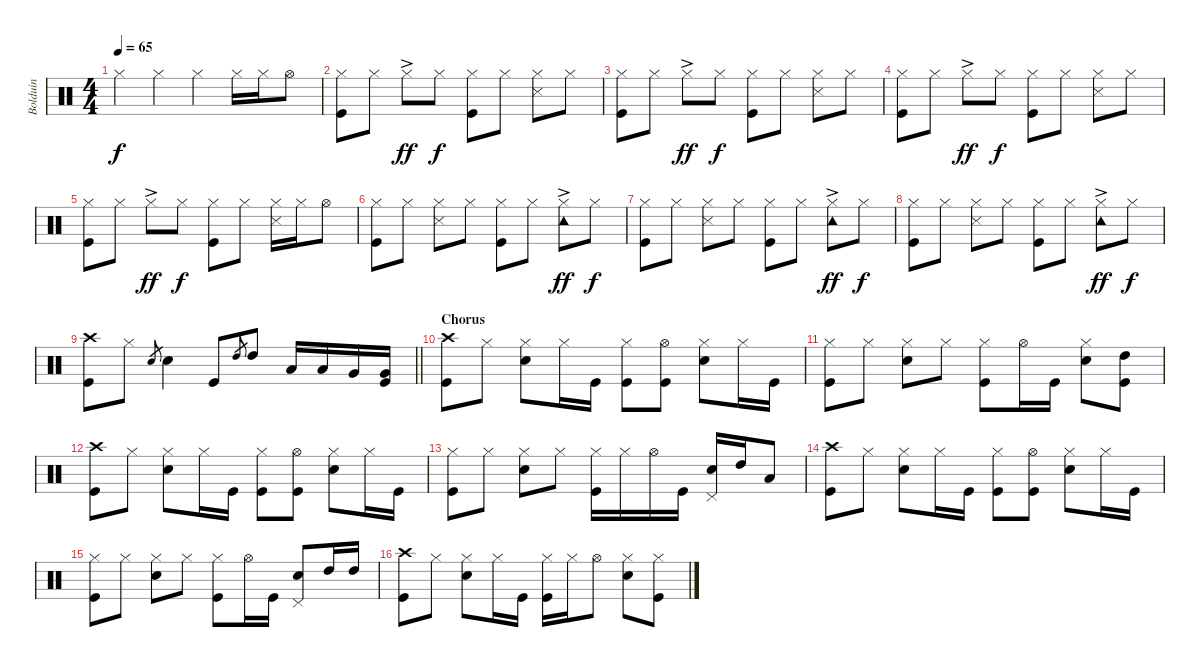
\track ("Bolduin" "Bolduin") {instrument percussion}
\staff {score}
\articulation defaults
\ts (4 4)
\tempo 65
\clef neutral
\ks c "Hi-Hat (closed)".4{dy f} "Hi-Hat (closed)".4 "Hi-Hat (closed)".4 "Hi-Hat (closed)".16 "Hi-Hat (closed)".16 "Hi-Hat (open)".8
|
("Kick (hit)" "Hi-Hat (closed)").8 "Hi-Hat (closed)".8 "Hi-Hat (closed)"{ac}.8{dy ff} "Hi-Hat (closed)".8{dy f} ("Hi-Hat (closed)" "Kick (hit)").8 "Hi-Hat (closed)".8 ("Hi-Hat (closed)" "Snare (side stick) 3").8 "Hi-Hat (closed)".8 |
("Kick (hit)" "Hi-Hat (closed)").8 "Hi-Hat (closed)".8 "Hi-Hat (closed)"{ac}.8{dy ff} "Hi-Hat (closed)".8{dy f} ("Hi-Hat (closed)" "Kick (hit)").8 "Hi-Hat (closed)".8 ("Hi-Hat (closed)" "Snare (side stick) 3").8 "Hi-Hat (closed)".8 |
("Kick (hit)" "Hi-Hat (closed)").8 "Hi-Hat (closed)".8 "Hi-Hat (closed)"{ac}.8{dy ff} "Hi-Hat (closed)".8{dy f} ("Hi-Hat (closed)" "Kick (hit)").8 "Hi-Hat (closed)".8 ("Hi-Hat (closed)" "Snare (side stick) 3").8 "Hi-Hat (closed)".8 |
("Kick (hit)" "Hi-Hat (closed)").8 "Hi-Hat (closed)".8 "Hi-Hat (closed)"{ac}.8{dy ff} "Hi-Hat (closed)".8{dy f} ("Hi-Hat (closed)" "Kick (hit)").8 "Hi-Hat (closed)".8 ("Hi-Hat (closed)" "Snare (side stick) 3").16 "Hi-Hat (closed)".16 "Hi-Hat (open)".8 |
("Kick (hit)" "Hi-Hat (closed)").8 "Hi-Hat (closed)".8 ("Hi-Hat (closed)" "Snare (side stick) 3").8 "Hi-Hat (closed)".8 ("Hi-Hat (closed)" "Kick (hit)").8 "Hi-Hat (closed)".8 ("Hi-Hat (closed)" "Tambourine (hit)"{ac}).8{dy ff} "Hi-Hat (closed)".8{dy f} |
("Kick (hit)" "Hi-Hat (closed)").8 "Hi-Hat (closed)".8 ("Hi-Hat (closed)" "Snare (side stick) 3").8 "Hi-Hat (closed)".8 ("Hi-Hat (closed)" "Kick (hit)").8 "Hi-Hat (closed)".8 ("Hi-Hat (closed)" "Tambourine (hit)"{ac}).8{dy ff} "Hi-Hat (closed)".8{dy f} |
("Kick (hit)" "Hi-Hat (closed)").8 "Hi-Hat (closed)".8 ("Hi-Hat (closed)" "Snare (side stick) 3").8 "Hi-Hat (closed)".8 ("Hi-Hat (closed)" "Kick (hit)").8 "Hi-Hat (closed)".8 ("Hi-Hat (closed)"{ac} "Tambourine (hit)").8{dy ff} "Hi-Hat (closed)".8{dy f} |
\barLineRight lightlight
("Kick (hit)" "Crash high (hit)").8 "Hi-Hat (closed)".8 "Snare (hit) 2".8{gr} "Snare (hit) 2".4 "Kick (hit)".8 "High Tom (hit)".8{gr} "High Tom (hit)".8 "Low Tom (hit)".16 "Low Tom (hit)".16 "Very Low Tom (hit)".16 ("Very Low Tom (hit)" "Kick (hit)").16 |
\section ("" "Chorus")
("Kick (hit)" "Crash high (hit)").8 "Hi-Hat (closed)".8 ("Hi-Hat (closed)" "Snare (hit) 2").8 "Hi-Hat (closed)".16 "Kick (hit)".16 ("Kick (hit)" "Hi-Hat (closed)").8 ("Hi-Hat (open)" "Kick (hit)").8 ("Hi-Hat (closed)" "Snare (hit) 2").8 "Hi-Hat (closed)".16 "Kick (hit)".16 |
("Kick (hit)" "Hi-Hat (closed)").8 "Hi-Hat (closed)".8 ("Hi-Hat (closed)" "Snare (hit) 2").8 "Hi-Hat (closed)".8 ("Kick (hit)" "Hi-Hat (closed)").8 "Hi-Hat (open)".16 "Kick (hit)".16 ("Hi-Hat (closed)" "Snare (hit) 2").8 ("High Tom (hit)" "Kick (hit)").8 |
("Kick (hit)" "Crash high (hit)").8 "Hi-Hat (closed)".8 ("Hi-Hat (closed)" "Snare (hit) 2").8 "Hi-Hat (closed)".16 "Kick (hit)".16 ("Kick (hit)" "Hi-Hat (closed)").8 ("Hi-Hat (open)" "Kick (hit)").8 ("Hi-Hat (closed)" "Snare (hit) 2").8 "Hi-Hat (closed)".16 "Kick (hit)".16 |
("Kick (hit)" "Hi-Hat (closed)").8 "Hi-Hat (closed)".8 ("Hi-Hat (closed)" "Snare (hit) 2").8 "Hi-Hat (closed)".8 ("Kick (hit)" "Hi-Hat (closed)").16 "Hi-Hat (closed)".16 "Hi-Hat (open)".16 "Kick (hit)".16 ("Pedal Hi-Hat (hit)" "Snare (hit) 2").16 "High Tom (hit)".16 "Low Tom (hit)".8 |
("Kick (hit)" "Crash high (hit)").8 "Hi-Hat (closed)".8 ("Hi-Hat (closed)" "Snare (hit) 2").8 "Hi-Hat (closed)".16 "Kick (hit)".16 ("Kick (hit)" "Hi-Hat (closed)").8 ("Hi-Hat (open)" "Kick (hit)").8 ("Hi-Hat (closed)" "Snare (hit) 2").8 "Hi-Hat (closed)".16 "Kick (hit)".16 |
("Kick (hit)" "Hi-Hat (closed)").8 "Hi-Hat (closed)".8 ("Hi-Hat (closed)" "Snare (hit) 2").8 "Hi-Hat (closed)".8 ("Kick (hit)" "Hi-Hat (closed)").8 "Hi-Hat (open)".16 "Kick (hit)".16 ("Pedal Hi-Hat (hit)" "Snare (hit) 2").8 "High Tom (hit)".16 "High Tom (hit)".16 |
("Kick (hit)" "Crash high (hit)").8 "Hi-Hat (closed)".8 ("Hi-Hat (closed)" "Snare (hit) 2").8 "Hi-Hat (closed)".16 "Kick (hit)".16 ("Kick (hit)" "Hi-Hat (closed)").16 "Hi-Hat (closed)".16 "Hi-Hat (open)".8 ("Hi-Hat (closed)" "Snare (hit) 2").8 ("Hi-Hat (closed)" "Kick (hit)").8
